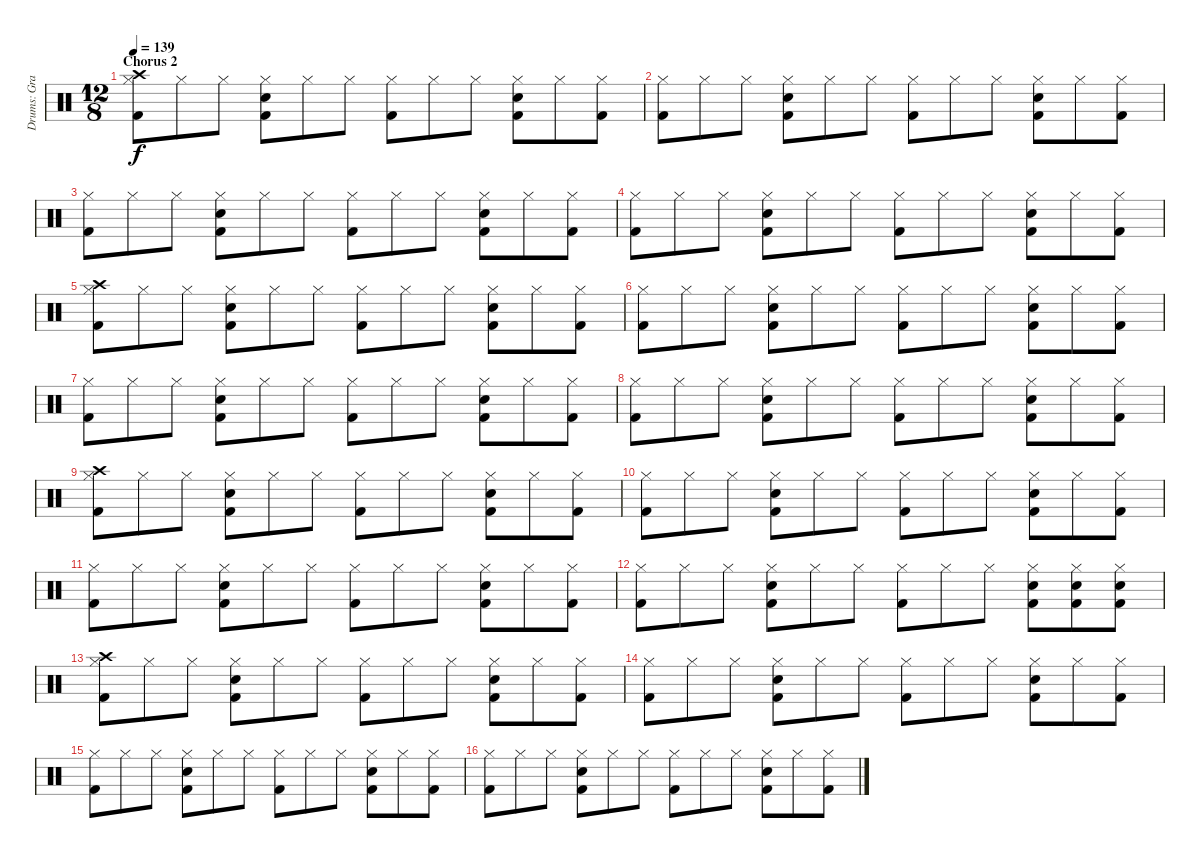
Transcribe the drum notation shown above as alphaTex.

\track ("Drums: Graeme Edge" "Drums: Gra") {instrument percussion}
\staff {score}
\articulation defaults
\ts (12 8)
\section ("" "Chorus 2")
\tempo 139
\clef neutral
\ks c
("Crash high (hit)" "Hi-Hat (closed)" "Kick (hit) 2").8{dy f} "Hi-Hat (closed)".8 "Hi-Hat (closed)".8 ("Hi-Hat (closed)" "Snare (hit) 2" "Kick (hit) 2").8 "Hi-Hat (closed)".8 "Hi-Hat (closed)".8 ("Hi-Hat (closed)" "Kick (hit) 2").8 "Hi-Hat (closed)".8 "Hi-Hat (closed)".8 ("Hi-Hat (closed)" "Snare (hit) 2" "Kick (hit) 2").8 "Hi-Hat (closed)".8 ("Hi-Hat (closed)" "Kick (hit) 2").8 |
("Hi-Hat (closed)" "Kick (hit) 2").8 "Hi-Hat (closed)".8 "Hi-Hat (closed)".8 ("Hi-Hat (closed)" "Snare (hit) 2" "Kick (hit) 2").8 "Hi-Hat (closed)".8 "Hi-Hat (closed)".8 ("Hi-Hat (closed)" "Kick (hit) 2").8 "Hi-Hat (closed)".8 "Hi-Hat (closed)".8 ("Hi-Hat (closed)" "Snare (hit) 2" "Kick (hit) 2").8 "Hi-Hat (closed)".8 ("Hi-Hat (closed)" "Kick (hit) 2").8 |
("Hi-Hat (closed)" "Kick (hit) 2").8 "Hi-Hat (closed)".8 "Hi-Hat (closed)".8 ("Hi-Hat (closed)" "Snare (hit) 2" "Kick (hit) 2").8 "Hi-Hat (closed)".8 "Hi-Hat (closed)".8 ("Hi-Hat (closed)" "Kick (hit) 2").8 "Hi-Hat (closed)".8 "Hi-Hat (closed)".8 ("Hi-Hat (closed)" "Snare (hit) 2" "Kick (hit) 2").8 "Hi-Hat (closed)".8 ("Hi-Hat (closed)" "Kick (hit) 2").8 |
("Hi-Hat (closed)" "Kick (hit) 2").8 "Hi-Hat (closed)".8 "Hi-Hat (closed)".8 ("Hi-Hat (closed)" "Snare (hit) 2" "Kick (hit) 2").8 "Hi-Hat (closed)".8 "Hi-Hat (closed)".8 ("Hi-Hat (closed)" "Kick (hit) 2").8 "Hi-Hat (closed)".8 "Hi-Hat (closed)".8 ("Hi-Hat (closed)" "Snare (hit) 2" "Kick (hit) 2").8 "Hi-Hat (closed)".8 ("Hi-Hat (closed)" "Kick (hit) 2").8 |
("Crash high (hit)" "Hi-Hat (closed)" "Kick (hit) 2").8 "Hi-Hat (closed)".8 "Hi-Hat (closed)".8 ("Hi-Hat (closed)" "Snare (hit) 2" "Kick (hit) 2").8 "Hi-Hat (closed)".8 "Hi-Hat (closed)".8 ("Hi-Hat (closed)" "Kick (hit) 2").8 "Hi-Hat (closed)".8 "Hi-Hat (closed)".8 ("Hi-Hat (closed)" "Snare (hit) 2" "Kick (hit) 2").8 "Hi-Hat (closed)".8 ("Hi-Hat (closed)" "Kick (hit) 2").8 |
("Hi-Hat (closed)" "Kick (hit) 2").8 "Hi-Hat (closed)".8 "Hi-Hat (closed)".8 ("Hi-Hat (closed)" "Snare (hit) 2" "Kick (hit) 2").8 "Hi-Hat (closed)".8 "Hi-Hat (closed)".8 ("Hi-Hat (closed)" "Kick (hit) 2").8 "Hi-Hat (closed)".8 "Hi-Hat (closed)".8 ("Hi-Hat (closed)" "Snare (hit) 2" "Kick (hit) 2").8 "Hi-Hat (closed)".8 ("Hi-Hat (closed)" "Kick (hit) 2").8 |
("Hi-Hat (closed)" "Kick (hit) 2").8 "Hi-Hat (closed)".8 "Hi-Hat (closed)".8 ("Hi-Hat (closed)" "Snare (hit) 2" "Kick (hit) 2").8 "Hi-Hat (closed)".8 "Hi-Hat (closed)".8 ("Hi-Hat (closed)" "Kick (hit) 2").8 "Hi-Hat (closed)".8 "Hi-Hat (closed)".8 ("Hi-Hat (closed)" "Snare (hit) 2" "Kick (hit) 2").8 "Hi-Hat (closed)".8 ("Hi-Hat (closed)" "Kick (hit) 2").8 |
("Hi-Hat (closed)" "Kick (hit) 2").8 "Hi-Hat (closed)".8 "Hi-Hat (closed)".8 ("Hi-Hat (closed)" "Snare (hit) 2" "Kick (hit) 2").8 "Hi-Hat (closed)".8 "Hi-Hat (closed)".8 ("Hi-Hat (closed)" "Kick (hit) 2").8 "Hi-Hat (closed)".8 "Hi-Hat (closed)".8 ("Hi-Hat (closed)" "Snare (hit) 2" "Kick (hit) 2").8 "Hi-Hat (closed)".8 ("Hi-Hat (closed)" "Kick (hit) 2").8 |
("Crash high (hit)" "Hi-Hat (closed)" "Kick (hit) 2").8 "Hi-Hat (closed)".8 "Hi-Hat (closed)".8 ("Hi-Hat (closed)" "Snare (hit) 2" "Kick (hit) 2").8 "Hi-Hat (closed)".8 "Hi-Hat (closed)".8 ("Hi-Hat (closed)" "Kick (hit) 2").8 "Hi-Hat (closed)".8 "Hi-Hat (closed)".8 ("Hi-Hat (closed)" "Snare (hit) 2" "Kick (hit) 2").8 "Hi-Hat (closed)".8 ("Hi-Hat (closed)" "Kick (hit) 2").8 |
("Hi-Hat (closed)" "Kick (hit) 2").8 "Hi-Hat (closed)".8 "Hi-Hat (closed)".8 ("Hi-Hat (closed)" "Snare (hit) 2" "Kick (hit) 2").8 "Hi-Hat (closed)".8 "Hi-Hat (closed)".8 ("Hi-Hat (closed)" "Kick (hit) 2").8 "Hi-Hat (closed)".8 "Hi-Hat (closed)".8 ("Hi-Hat (closed)" "Snare (hit) 2" "Kick (hit) 2").8 "Hi-Hat (closed)".8 ("Hi-Hat (closed)" "Kick (hit) 2").8 |
("Hi-Hat (closed)" "Kick (hit) 2").8 "Hi-Hat (closed)".8 "Hi-Hat (closed)".8 ("Hi-Hat (closed)" "Snare (hit) 2" "Kick (hit) 2").8 "Hi-Hat (closed)".8 "Hi-Hat (closed)".8 ("Hi-Hat (closed)" "Kick (hit) 2").8 "Hi-Hat (closed)".8 "Hi-Hat (closed)".8 ("Hi-Hat (closed)" "Snare (hit) 2" "Kick (hit) 2").8 "Hi-Hat (closed)".8 ("Hi-Hat (closed)" "Kick (hit) 2").8 |
("Hi-Hat (closed)" "Kick (hit) 2").8 "Hi-Hat (closed)".8 "Hi-Hat (closed)".8 ("Hi-Hat (closed)" "Snare (hit) 2" "Kick (hit) 2").8 "Hi-Hat (closed)".8 "Hi-Hat (closed)".8 ("Hi-Hat (closed)" "Kick (hit) 2").8 "Hi-Hat (closed)".8 "Hi-Hat (closed)".8 ("Hi-Hat (closed)" "Snare (hit) 2" "Kick (hit) 2").8 ("Hi-Hat (closed)" "Snare (hit) 2" "Kick (hit) 2").8 ("Hi-Hat (closed)" "Snare (hit) 2" "Kick (hit) 2").8 |
("Crash high (hit)" "Hi-Hat (closed)" "Kick (hit) 2").8 "Hi-Hat (closed)".8 "Hi-Hat (closed)".8 ("Hi-Hat (closed)" "Snare (hit) 2" "Kick (hit) 2").8 "Hi-Hat (closed)".8 "Hi-Hat (closed)".8 ("Hi-Hat (closed)" "Kick (hit) 2").8 "Hi-Hat (closed)".8 "Hi-Hat (closed)".8 ("Hi-Hat (closed)" "Snare (hit) 2" "Kick (hit) 2").8 "Hi-Hat (closed)".8 ("Hi-Hat (closed)" "Kick (hit) 2").8 |
("Hi-Hat (closed)" "Kick (hit) 2").8 "Hi-Hat (closed)".8 "Hi-Hat (closed)".8 ("Hi-Hat (closed)" "Snare (hit) 2" "Kick (hit) 2").8 "Hi-Hat (closed)".8 "Hi-Hat (closed)".8 ("Hi-Hat (closed)" "Kick (hit) 2").8 "Hi-Hat (closed)".8 "Hi-Hat (closed)".8 ("Hi-Hat (closed)" "Snare (hit) 2" "Kick (hit) 2").8 "Hi-Hat (closed)".8 ("Hi-Hat (closed)" "Kick (hit) 2").8 |
("Hi-Hat (closed)" "Kick (hit) 2").8 "Hi-Hat (closed)".8 "Hi-Hat (closed)".8 ("Hi-Hat (closed)" "Snare (hit) 2" "Kick (hit) 2").8 "Hi-Hat (closed)".8 "Hi-Hat (closed)".8 ("Hi-Hat (closed)" "Kick (hit) 2").8 "Hi-Hat (closed)".8 "Hi-Hat (closed)".8 ("Hi-Hat (closed)" "Snare (hit) 2" "Kick (hit) 2").8 "Hi-Hat (closed)".8 ("Hi-Hat (closed)" "Kick (hit) 2").8 |
("Hi-Hat (closed)" "Kick (hit) 2").8 "Hi-Hat (closed)".8 "Hi-Hat (closed)".8 ("Hi-Hat (closed)" "Snare (hit) 2" "Kick (hit) 2").8 "Hi-Hat (closed)".8 "Hi-Hat (closed)".8 ("Hi-Hat (closed)" "Kick (hit) 2").8 "Hi-Hat (closed)".8 "Hi-Hat (closed)".8 ("Hi-Hat (closed)" "Snare (hit) 2" "Kick (hit) 2").8 "Hi-Hat (closed)".8 ("Hi-Hat (closed)" "Kick (hit) 2").8
